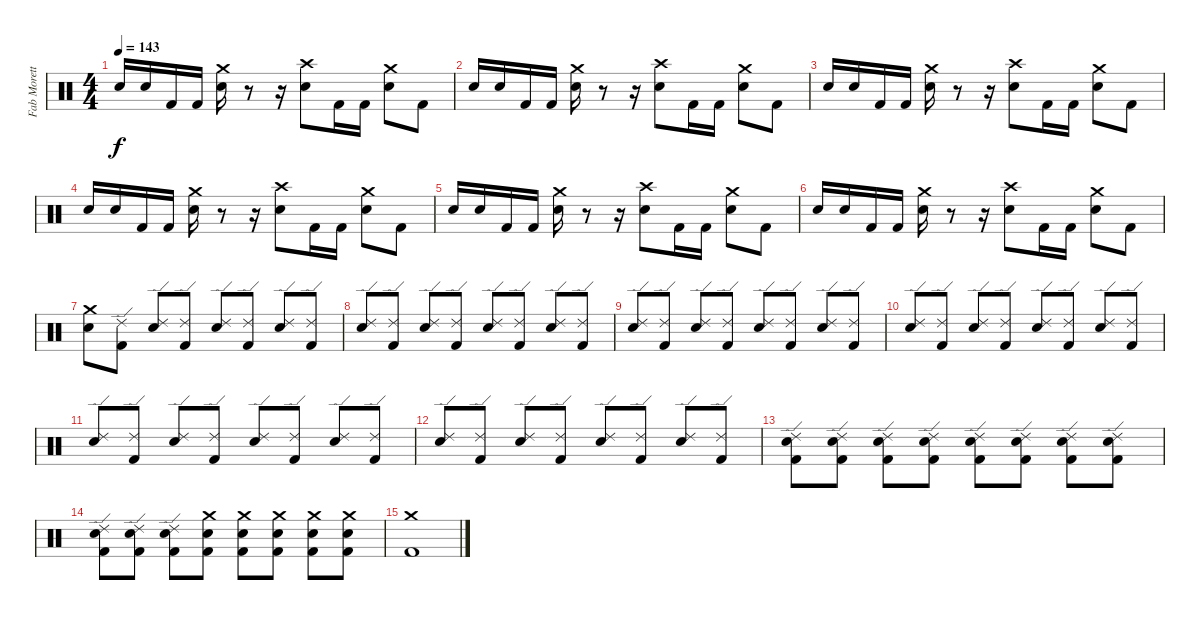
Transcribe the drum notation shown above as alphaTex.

\track ("Fab Moretti" "Fab Morett") {instrument percussion}
\staff {score}
\articulation defaults
\ts (4 4)
\tempo 143
\clef neutral
\ks c "Electric Snare (hit)".16{dy f} "Electric Snare (hit)".16 "Kick (hit) 2".16 "Kick (hit) 2".16
("Crash medium (hit)" "Electric Snare (hit)").16 r.8 r.16 ("Crash high (hit)" "Electric Snare (hit)").8 "Kick (hit) 2".16 "Kick (hit) 2".16 ("Crash medium (hit)" "Electric Snare (hit)").8 "Kick (hit) 2".8 |
"Electric Snare (hit)".16 "Electric Snare (hit)".16 "Kick (hit) 2".16 "Kick (hit) 2".16 ("Crash medium (hit)" "Electric Snare (hit)").16 r.8 r.16 ("Crash high (hit)" "Electric Snare (hit)").8 "Kick (hit) 2".16 "Kick (hit) 2".16 ("Crash medium (hit)" "Electric Snare (hit)").8 "Kick (hit) 2".8 |
"Electric Snare (hit)".16 "Electric Snare (hit)".16 "Kick (hit) 2".16 "Kick (hit) 2".16 ("Crash medium (hit)" "Electric Snare (hit)").16 r.8 r.16 ("Crash high (hit)" "Electric Snare (hit)").8 "Kick (hit) 2".16 "Kick (hit) 2".16 ("Crash medium (hit)" "Electric Snare (hit)").8 "Kick (hit) 2".8 |
"Electric Snare (hit)".16 "Electric Snare (hit)".16 "Kick (hit) 2".16 "Kick (hit) 2".16 ("Crash medium (hit)" "Electric Snare (hit)").16 r.8 r.16 ("Crash high (hit)" "Electric Snare (hit)").8 "Kick (hit) 2".16 "Kick (hit) 2".16 ("Crash medium (hit)" "Electric Snare (hit)").8 "Kick (hit) 2".8 |
"Electric Snare (hit)".16 "Electric Snare (hit)".16 "Kick (hit) 2".16 "Kick (hit) 2".16 ("Crash medium (hit)" "Electric Snare (hit)").16 r.8 r.16 ("Crash high (hit)" "Electric Snare (hit)").8 "Kick (hit) 2".16 "Kick (hit) 2".16 ("Crash medium (hit)" "Electric Snare (hit)").8 "Kick (hit) 2".8 |
"Electric Snare (hit)".16 "Electric Snare (hit)".16 "Kick (hit) 2".16 "Kick (hit) 2".16 ("Crash medium (hit)" "Electric Snare (hit)").16 r.8 r.16 ("Crash high (hit)" "Electric Snare (hit)").8 "Kick (hit) 2".16 "Kick (hit) 2".16 ("Crash medium (hit)" "Electric Snare (hit)").8 "Kick (hit) 2".8 |
("Crash medium (hit)" "Electric Snare (hit)").8 ("Ride (edge) 2" "Kick (hit) 2").8 ("Ride (edge) 2" "Electric Snare (hit)").8 ("Ride (edge) 2" "Kick (hit) 2").8 ("Ride (edge) 2" "Electric Snare (hit)").8 ("Ride (edge) 2" "Kick (hit) 2").8 ("Ride (edge) 2" "Electric Snare (hit)").8 ("Ride (edge) 2" "Kick (hit) 2").8 |
("Ride (edge) 2" "Electric Snare (hit)").8 ("Ride (edge) 2" "Kick (hit) 2").8 ("Ride (edge) 2" "Electric Snare (hit)").8 ("Ride (edge) 2" "Kick (hit) 2").8 ("Ride (edge) 2" "Electric Snare (hit)").8 ("Ride (edge) 2" "Kick (hit) 2").8 ("Ride (edge) 2" "Electric Snare (hit)").8 ("Ride (edge) 2" "Kick (hit) 2").8 |
("Ride (edge) 2" "Electric Snare (hit)").8 ("Ride (edge) 2" "Kick (hit) 2").8 ("Ride (edge) 2" "Electric Snare (hit)").8 ("Ride (edge) 2" "Kick (hit) 2").8 ("Ride (edge) 2" "Electric Snare (hit)").8 ("Ride (edge) 2" "Kick (hit) 2").8 ("Ride (edge) 2" "Electric Snare (hit)").8 ("Ride (edge) 2" "Kick (hit) 2").8 |
("Ride (edge) 2" "Electric Snare (hit)").8 ("Ride (edge) 2" "Kick (hit) 2").8 ("Ride (edge) 2" "Electric Snare (hit)").8 ("Ride (edge) 2" "Kick (hit) 2").8 ("Ride (edge) 2" "Electric Snare (hit)").8 ("Ride (edge) 2" "Kick (hit) 2").8 ("Ride (edge) 2" "Electric Snare (hit)").8 ("Ride (edge) 2" "Kick (hit) 2").8 |
("Ride (edge) 2" "Electric Snare (hit)").8 ("Ride (edge) 2" "Kick (hit) 2").8 ("Ride (edge) 2" "Electric Snare (hit)").8 ("Ride (edge) 2" "Kick (hit) 2").8 ("Ride (edge) 2" "Electric Snare (hit)").8 ("Ride (edge) 2" "Kick (hit) 2").8 ("Ride (edge) 2" "Electric Snare (hit)").8 ("Ride (edge) 2" "Kick (hit) 2").8 |
("Ride (edge) 2" "Electric Snare (hit)").8 ("Ride (edge) 2" "Kick (hit) 2").8 ("Ride (edge) 2" "Electric Snare (hit)").8 ("Ride (edge) 2" "Kick (hit) 2").8 ("Ride (edge) 2" "Electric Snare (hit)").8 ("Ride (edge) 2" "Kick (hit) 2").8 ("Ride (edge) 2" "Electric Snare (hit)").8 ("Ride (edge) 2" "Kick (hit) 2").8 |
("Ride (edge) 2" "Electric Snare (hit)" "Kick (hit) 2").8 ("Ride (edge) 2" "Electric Snare (hit)" "Kick (hit) 2").8 ("Ride (edge) 2" "Electric Snare (hit)" "Kick (hit) 2").8 ("Ride (edge) 2" "Electric Snare (hit)" "Kick (hit) 2").8 ("Ride (edge) 2" "Electric Snare (hit)" "Kick (hit) 2").8 ("Ride (edge) 2" "Electric Snare (hit)" "Kick (hit) 2").8 ("Ride (edge) 2" "Electric Snare (hit)" "Kick (hit) 2").8 ("Ride (edge) 2" "Electric Snare (hit)" "Kick (hit) 2").8 |
("Ride (edge) 2" "Electric Snare (hit)" "Kick (hit) 2").8 ("Ride (edge) 2" "Electric Snare (hit)" "Kick (hit) 2").8 ("Ride (edge) 2" "Electric Snare (hit)" "Kick (hit) 2").8 ("Crash medium (hit)" "Electric Snare (hit)" "Kick (hit) 2").8 ("Crash medium (hit)" "Electric Snare (hit)" "Kick (hit) 2").8 ("Crash medium (hit)" "Electric Snare (hit)" "Kick (hit) 2").8 ("Crash medium (hit)" "Electric Snare (hit)" "Kick (hit) 2").8 ("Crash medium (hit)" "Electric Snare (hit)" "Kick (hit) 2").8 |
("Crash medium (hit)" "Kick (hit) 2").1
